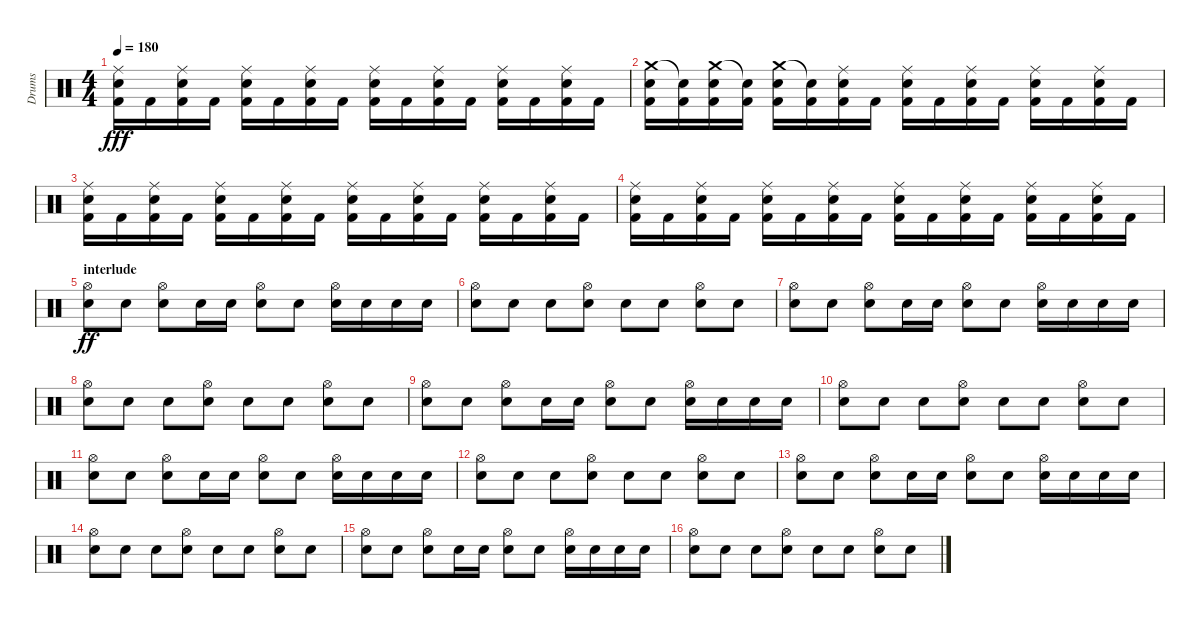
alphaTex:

\track ("Drums" "Drums") {instrument percussion}
\staff {score}
\articulation defaults
\ts (4 4)
\tempo 180
\clef neutral
\ks c
("Ride (middle)" "Electric Snare (hit)" "Kick (hit) 2").16{dy fff} "Kick (hit) 2".16 ("Ride (middle)" "Electric Snare (hit)" "Kick (hit) 2").16 "Kick (hit) 2".16 ("Ride (middle)" "Snare (hit) 2" "Kick (hit) 2").16 "Kick (hit) 2".16 ("Ride (middle)" "Snare (hit) 2" "Kick (hit) 2").16 "Kick (hit) 2".16 ("Ride (middle)" "Electric Snare (hit)" "Kick (hit) 2").16 "Kick (hit) 2".16 ("Ride (middle)" "Electric Snare (hit)" "Kick (hit) 2").16 "Kick (hit) 2".16 ("Ride (middle)" "Snare (hit) 2" "Kick (hit) 2").16 "Kick (hit) 2".16 ("Ride (middle)" "Snare (hit) 2" "Kick (hit) 2").16 "Kick (hit) 2".16 |
("Crash medium (hit)" "Electric Snare (hit)" "Kick (hit) 2").16 ("Snare (hit)"{t} "Kick (hit) 2").16 ("Crash medium (hit)" "Electric Snare (hit)" "Kick (hit) 2").16 ("Snare (hit)"{t} "Kick (hit) 2").16 ("Crash medium (hit)" "Snare (hit) 2" "Kick (hit) 2").16 ("Snare (hit)"{t} "Kick (hit) 2").16 ("Ride (middle)" "Snare (hit) 2" "Kick (hit) 2").16 "Kick (hit) 2".16 ("Ride (middle)" "Electric Snare (hit)" "Kick (hit) 2").16 "Kick (hit) 2".16 ("Ride (middle)" "Electric Snare (hit)" "Kick (hit) 2").16 "Kick (hit) 2".16 ("Ride (middle)" "Snare (hit) 2" "Kick (hit) 2").16 "Kick (hit) 2".16 ("Ride (middle)" "Snare (hit) 2" "Kick (hit) 2").16 "Kick (hit) 2".16 |
("Ride (middle)" "Electric Snare (hit)" "Kick (hit) 2").16 "Kick (hit) 2".16 ("Ride (middle)" "Electric Snare (hit)" "Kick (hit) 2").16 "Kick (hit) 2".16 ("Ride (middle)" "Snare (hit) 2" "Kick (hit) 2").16 "Kick (hit) 2".16 ("Ride (middle)" "Snare (hit) 2" "Kick (hit) 2").16 "Kick (hit) 2".16 ("Ride (middle)" "Electric Snare (hit)" "Kick (hit) 2").16 "Kick (hit) 2".16 ("Ride (middle)" "Electric Snare (hit)" "Kick (hit) 2").16 "Kick (hit) 2".16 ("Ride (middle)" "Snare (hit) 2" "Kick (hit) 2").16 "Kick (hit) 2".16 ("Ride (middle)" "Snare (hit) 2" "Kick (hit) 2").16 "Kick (hit) 2".16 |
("Ride (middle)" "Electric Snare (hit)" "Kick (hit) 2").16 "Kick (hit) 2".16 ("Ride (middle)" "Electric Snare (hit)" "Kick (hit) 2").16 "Kick (hit) 2".16 ("Ride (middle)" "Snare (hit) 2" "Kick (hit) 2").16 "Kick (hit) 2".16 ("Ride (middle)" "Snare (hit) 2" "Kick (hit) 2").16 "Kick (hit) 2".16 ("Ride (middle)" "Electric Snare (hit)" "Kick (hit) 2").16 "Kick (hit) 2".16 ("Ride (middle)" "Electric Snare (hit)" "Kick (hit) 2").16 "Kick (hit) 2".16 ("Ride (middle)" "Snare (hit) 2" "Kick (hit) 2").16 "Kick (hit) 2".16 ("Ride (middle)" "Snare (hit) 2" "Kick (hit) 2").16 "Kick (hit) 2".16 |
\section ("" "interlude")
("Hi-Hat (open)" "Electric Snare (hit)").8{dy ff} "Snare (hit) 2".8 ("Hi-Hat (open)" "Electric Snare (hit)").8 "Snare (hit) 2".16 "Snare (hit) 2".16 ("Electric Snare (hit)" "Hi-Hat (open)").8 "Snare (hit) 2".8 ("Snare (hit) 2" "Hi-Hat (open)").16 "Snare (hit) 2".16 "Snare (hit) 2".16 "Snare (hit) 2".16 |
("Hi-Hat (open)" "Snare (hit) 2").8 "Snare (hit) 2".8 "Snare (hit) 2".8 ("Hi-Hat (open)" "Snare (hit) 2").8 "Snare (hit) 2".8 "Snare (hit) 2".8 ("Hi-Hat (open)" "Snare (hit) 2").8 "Snare (hit) 2".8 |
("Hi-Hat (open)" "Electric Snare (hit)").8 "Snare (hit) 2".8 ("Hi-Hat (open)" "Electric Snare (hit)").8 "Snare (hit) 2".16 "Snare (hit) 2".16 ("Electric Snare (hit)" "Hi-Hat (open)").8 "Snare (hit) 2".8 ("Snare (hit) 2" "Hi-Hat (open)").16 "Snare (hit) 2".16 "Snare (hit) 2".16 "Snare (hit) 2".16 |
("Hi-Hat (open)" "Snare (hit) 2").8 "Snare (hit) 2".8 "Snare (hit) 2".8 ("Hi-Hat (open)" "Snare (hit) 2").8 "Snare (hit) 2".8 "Snare (hit) 2".8 ("Hi-Hat (open)" "Snare (hit) 2").8 "Snare (hit) 2".8 |
("Hi-Hat (open)" "Electric Snare (hit)").8 "Snare (hit) 2".8 ("Hi-Hat (open)" "Electric Snare (hit)").8 "Snare (hit) 2".16 "Snare (hit) 2".16 ("Electric Snare (hit)" "Hi-Hat (open)").8 "Snare (hit) 2".8 ("Snare (hit) 2" "Hi-Hat (open)").16 "Snare (hit) 2".16 "Snare (hit) 2".16 "Snare (hit) 2".16 |
("Hi-Hat (open)" "Snare (hit) 2").8 "Snare (hit) 2".8 "Snare (hit) 2".8 ("Hi-Hat (open)" "Snare (hit) 2").8 "Snare (hit) 2".8 "Snare (hit) 2".8 ("Hi-Hat (open)" "Snare (hit) 2").8 "Snare (hit) 2".8 |
("Hi-Hat (open)" "Electric Snare (hit)").8 "Snare (hit) 2".8 ("Hi-Hat (open)" "Electric Snare (hit)").8 "Snare (hit) 2".16 "Snare (hit) 2".16 ("Electric Snare (hit)" "Hi-Hat (open)").8 "Snare (hit) 2".8 ("Snare (hit) 2" "Hi-Hat (open)").16 "Snare (hit) 2".16 "Snare (hit) 2".16 "Snare (hit) 2".16 |
("Hi-Hat (open)" "Snare (hit) 2").8 "Snare (hit) 2".8 "Snare (hit) 2".8 ("Hi-Hat (open)" "Snare (hit) 2").8 "Snare (hit) 2".8 "Snare (hit) 2".8 ("Hi-Hat (open)" "Snare (hit) 2").8 "Snare (hit) 2".8 |
("Hi-Hat (open)" "Electric Snare (hit)").8 "Snare (hit) 2".8 ("Hi-Hat (open)" "Electric Snare (hit)").8 "Snare (hit) 2".16 "Snare (hit) 2".16 ("Electric Snare (hit)" "Hi-Hat (open)").8 "Snare (hit) 2".8 ("Snare (hit) 2" "Hi-Hat (open)").16 "Snare (hit) 2".16 "Snare (hit) 2".16 "Snare (hit) 2".16 |
("Hi-Hat (open)" "Snare (hit) 2").8 "Snare (hit) 2".8 "Snare (hit) 2".8 ("Hi-Hat (open)" "Snare (hit) 2").8 "Snare (hit) 2".8 "Snare (hit) 2".8 ("Hi-Hat (open)" "Snare (hit) 2").8 "Snare (hit) 2".8 |
("Hi-Hat (open)" "Electric Snare (hit)").8 "Snare (hit) 2".8 ("Hi-Hat (open)" "Electric Snare (hit)").8 "Snare (hit) 2".16 "Snare (hit) 2".16 ("Electric Snare (hit)" "Hi-Hat (open)").8 "Snare (hit) 2".8 ("Snare (hit) 2" "Hi-Hat (open)").16 "Snare (hit) 2".16 "Snare (hit) 2".16 "Snare (hit) 2".16 |
("Hi-Hat (open)" "Snare (hit) 2").8 "Snare (hit) 2".8 "Snare (hit) 2".8 ("Hi-Hat (open)" "Snare (hit) 2").8 "Snare (hit) 2".8 "Snare (hit) 2".8 ("Hi-Hat (open)" "Snare (hit) 2").8 "Snare (hit) 2".8
